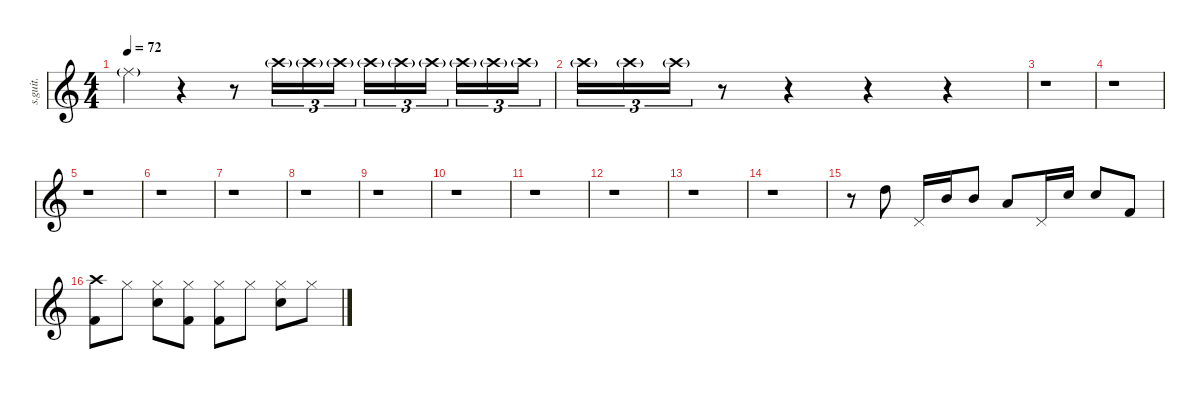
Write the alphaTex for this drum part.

\defaultSystemsLayout 4
\hideDynamics
\bracketExtendMode nobrackets
\track ("Ian Thomas" "s.guit.") {instrument percussion}
\staff {score}
\articulation defaults
\ts (4 4)
\tempo 72
\clef g2
\ks c "Ride (middle)"{g}.4{lyrics (0 "") lyrics (1 "") lyrics (2 "") lyrics (3 "") lyrics (4 "") dy f}
r.4 r.8 "Crash high (hit)"{g}.16{tu (3 2) lyrics (0 "") lyrics (1 "") lyrics (2 "") lyrics (3 "") lyrics (4 "")} "Crash high (hit)"{g}.16{tu (3 2) lyrics (0 "") lyrics (1 "") lyrics (2 "") lyrics (3 "") lyrics (4 "")} "Crash high (hit)"{g}.16{tu (3 2) lyrics (0 "") lyrics (1 "") lyrics (2 "") lyrics (3 "") lyrics (4 "")} "Crash high (hit)"{g}.16{tu (3 2) lyrics (0 "") lyrics (1 "") lyrics (2 "") lyrics (3 "") lyrics (4 "")} "Crash high (hit)"{g}.16{tu (3 2) lyrics (0 "") lyrics (1 "") lyrics (2 "") lyrics (3 "") lyrics (4 "")} "Crash high (hit)"{g}.16{tu (3 2) lyrics (0 "") lyrics (1 "") lyrics (2 "") lyrics (3 "") lyrics (4 "")} "Crash high (hit)"{g}.16{tu (3 2) lyrics (0 "") lyrics (1 "") lyrics (2 "") lyrics (3 "") lyrics (4 "")} "Crash high (hit)"{g}.16{tu (3 2) lyrics (0 "") lyrics (1 "") lyrics (2 "") lyrics (3 "") lyrics (4 "")} "Crash high (hit)"{g}.16{tu (3 2) lyrics (0 "") lyrics (1 "") lyrics (2 "") lyrics (3 "") lyrics (4 "")} |
"Crash high (hit)"{g}.16{tu (3 2) lyrics (0 "") lyrics (1 "") lyrics (2 "") lyrics (3 "") lyrics (4 "")} "Crash high (hit)"{g}.16{tu (3 2) lyrics (0 "") lyrics (1 "") lyrics (2 "") lyrics (3 "") lyrics (4 "")} "Crash high (hit)"{g}.16{tu (3 2) lyrics (0 "") lyrics (1 "") lyrics (2 "") lyrics (3 "") lyrics (4 "")} r.8 r.4 r.4 r.4 |
r.1 |
r.1 |
r.1 |
r.1 |
r.1 |
r.1 |
r.1 |
r.1 |
r.1 |
r.1 |
r.1 |
r.1 |
r.8 "High Tom (hit)".8{lyrics (0 "") lyrics (1 "") lyrics (2 "") lyrics (3 "") lyrics (4 "")} "Pedal Hi-Hat (hit)".16{lyrics (0 "") lyrics (1 "") lyrics (2 "") lyrics (3 "") lyrics (4 "")} "Mid Tom (hit)".16{lyrics (0 "") lyrics (1 "") lyrics (2 "") lyrics (3 "") lyrics (4 "")} "Mid Tom (hit)".8{lyrics (0 "") lyrics (1 "") lyrics (2 "") lyrics (3 "") lyrics (4 "")} "Low Floor Tom (hit)".8{lyrics (0 "") lyrics (1 "") lyrics (2 "") lyrics (3 "") lyrics (4 "")} "Pedal Hi-Hat (hit)".16{lyrics (0 "") lyrics (1 "") lyrics (2 "") lyrics (3 "") lyrics (4 "")} "Snare (hit) 2".16{lyrics (0 "") lyrics (1 "") lyrics (2 "") lyrics (3 "") lyrics (4 "")} "Snare (hit) 2".8{lyrics (0 "") lyrics (1 "") lyrics (2 "") lyrics (3 "") lyrics (4 "")} "Kick (hit) 2".8{lyrics (0 "") lyrics (1 "") lyrics (2 "") lyrics (3 "") lyrics (4 "")} |
("Crash high (hit)" "Kick (hit) 2").8{lyrics (0 "") lyrics (1 "") lyrics (2 "") lyrics (3 "") lyrics (4 "")} "Hi-Hat (closed)".8{lyrics (0 "") lyrics (1 "") lyrics (2 "") lyrics (3 "") lyrics (4 "")} ("Hi-Hat (closed)" "Snare (hit) 2").8{lyrics (0 "") lyrics (1 "") lyrics (2 "") lyrics (3 "") lyrics (4 "")} ("Hi-Hat (closed)" "Kick (hit) 2").8{lyrics (0 "") lyrics (1 "") lyrics (2 "") lyrics (3 "") lyrics (4 "")} ("Hi-Hat (closed)" "Kick (hit) 2").8{lyrics (0 "") lyrics (1 "") lyrics (2 "") lyrics (3 "") lyrics (4 "")} "Hi-Hat (closed)".8{lyrics (0 "") lyrics (1 "") lyrics (2 "") lyrics (3 "") lyrics (4 "")} ("Hi-Hat (closed)" "Snare (hit) 2").8{lyrics (0 "") lyrics (1 "") lyrics (2 "") lyrics (3 "") lyrics (4 "")} "Hi-Hat (closed)".8{lyrics (0 "") lyrics (1 "") lyrics (2 "") lyrics (3 "") lyrics (4 "")}
